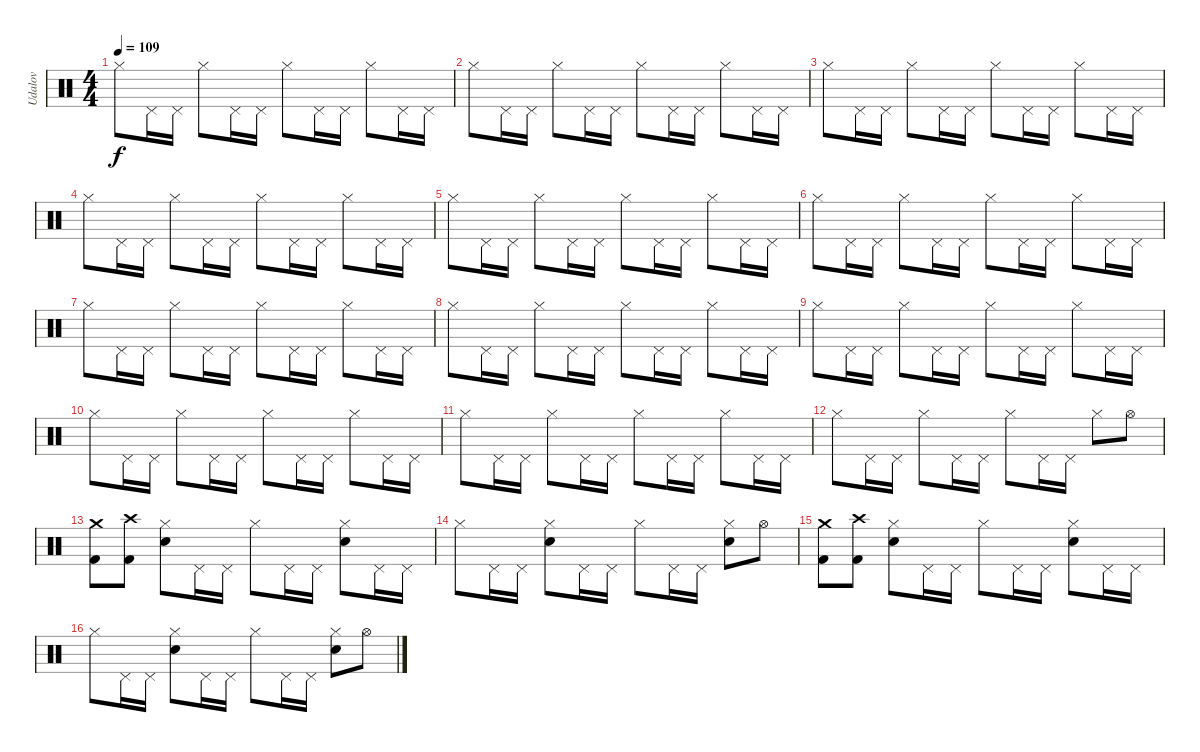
\track ("Udalov" "Udalov") {instrument percussion}
\staff {score}
\articulation defaults
\ts (4 4)
\tempo 109
\clef neutral
\ks c "Hi-Hat (closed)".8{dy f} "Pedal Hi-Hat (hit)".16 "Pedal Hi-Hat (hit)".16 "Hi-Hat (closed)".8 "Pedal Hi-Hat (hit)".16 "Pedal Hi-Hat (hit)".16 "Hi-Hat (closed)".8 "Pedal Hi-Hat (hit)".16 "Pedal Hi-Hat (hit)".16 "Hi-Hat (closed)".8 "Pedal Hi-Hat (hit)".16 "Pedal Hi-Hat (hit)".16
|
"Hi-Hat (closed)".8 "Pedal Hi-Hat (hit)".16 "Pedal Hi-Hat (hit)".16 "Hi-Hat (closed)".8 "Pedal Hi-Hat (hit)".16 "Pedal Hi-Hat (hit)".16 "Hi-Hat (closed)".8 "Pedal Hi-Hat (hit)".16 "Pedal Hi-Hat (hit)".16 "Hi-Hat (closed)".8 "Pedal Hi-Hat (hit)".16 "Pedal Hi-Hat (hit)".16 |
"Hi-Hat (closed)".8 "Pedal Hi-Hat (hit)".16 "Pedal Hi-Hat (hit)".16 "Hi-Hat (closed)".8 "Pedal Hi-Hat (hit)".16 "Pedal Hi-Hat (hit)".16 "Hi-Hat (closed)".8 "Pedal Hi-Hat (hit)".16 "Pedal Hi-Hat (hit)".16 "Hi-Hat (closed)".8 "Pedal Hi-Hat (hit)".16 "Pedal Hi-Hat (hit)".16 |
"Hi-Hat (closed)".8 "Pedal Hi-Hat (hit)".16 "Pedal Hi-Hat (hit)".16 "Hi-Hat (closed)".8 "Pedal Hi-Hat (hit)".16 "Pedal Hi-Hat (hit)".16 "Hi-Hat (closed)".8 "Pedal Hi-Hat (hit)".16 "Pedal Hi-Hat (hit)".16 "Hi-Hat (closed)".8 "Pedal Hi-Hat (hit)".16 "Pedal Hi-Hat (hit)".16 |
"Hi-Hat (closed)".8 "Pedal Hi-Hat (hit)".16 "Pedal Hi-Hat (hit)".16 "Hi-Hat (closed)".8 "Pedal Hi-Hat (hit)".16 "Pedal Hi-Hat (hit)".16 "Hi-Hat (closed)".8 "Pedal Hi-Hat (hit)".16 "Pedal Hi-Hat (hit)".16 "Hi-Hat (closed)".8 "Pedal Hi-Hat (hit)".16 "Pedal Hi-Hat (hit)".16 |
"Hi-Hat (closed)".8 "Pedal Hi-Hat (hit)".16 "Pedal Hi-Hat (hit)".16 "Hi-Hat (closed)".8 "Pedal Hi-Hat (hit)".16 "Pedal Hi-Hat (hit)".16 "Hi-Hat (closed)".8 "Pedal Hi-Hat (hit)".16 "Pedal Hi-Hat (hit)".16 "Hi-Hat (closed)".8 "Pedal Hi-Hat (hit)".16 "Pedal Hi-Hat (hit)".16 |
"Hi-Hat (closed)".8 "Pedal Hi-Hat (hit)".16 "Pedal Hi-Hat (hit)".16 "Hi-Hat (closed)".8 "Pedal Hi-Hat (hit)".16 "Pedal Hi-Hat (hit)".16 "Hi-Hat (closed)".8 "Pedal Hi-Hat (hit)".16 "Pedal Hi-Hat (hit)".16 "Hi-Hat (closed)".8 "Pedal Hi-Hat (hit)".16 "Pedal Hi-Hat (hit)".16 |
"Hi-Hat (closed)".8 "Pedal Hi-Hat (hit)".16 "Pedal Hi-Hat (hit)".16 "Hi-Hat (closed)".8 "Pedal Hi-Hat (hit)".16 "Pedal Hi-Hat (hit)".16 "Hi-Hat (closed)".8 "Pedal Hi-Hat (hit)".16 "Pedal Hi-Hat (hit)".16 "Hi-Hat (closed)".8 "Pedal Hi-Hat (hit)".16 "Pedal Hi-Hat (hit)".16 |
"Hi-Hat (closed)".8 "Pedal Hi-Hat (hit)".16 "Pedal Hi-Hat (hit)".16 "Hi-Hat (closed)".8 "Pedal Hi-Hat (hit)".16 "Pedal Hi-Hat (hit)".16 "Hi-Hat (closed)".8 "Pedal Hi-Hat (hit)".16 "Pedal Hi-Hat (hit)".16 "Hi-Hat (closed)".8 "Pedal Hi-Hat (hit)".16 "Pedal Hi-Hat (hit)".16 |
"Hi-Hat (closed)".8 "Pedal Hi-Hat (hit)".16 "Pedal Hi-Hat (hit)".16 "Hi-Hat (closed)".8 "Pedal Hi-Hat (hit)".16 "Pedal Hi-Hat (hit)".16 "Hi-Hat (closed)".8 "Pedal Hi-Hat (hit)".16 "Pedal Hi-Hat (hit)".16 "Hi-Hat (closed)".8 "Pedal Hi-Hat (hit)".16 "Pedal Hi-Hat (hit)".16 |
"Hi-Hat (closed)".8 "Pedal Hi-Hat (hit)".16 "Pedal Hi-Hat (hit)".16 "Hi-Hat (closed)".8 "Pedal Hi-Hat (hit)".16 "Pedal Hi-Hat (hit)".16 "Hi-Hat (closed)".8 "Pedal Hi-Hat (hit)".16 "Pedal Hi-Hat (hit)".16 "Hi-Hat (closed)".8 "Pedal Hi-Hat (hit)".16 "Pedal Hi-Hat (hit)".16 |
"Hi-Hat (closed)".8 "Pedal Hi-Hat (hit)".16 "Pedal Hi-Hat (hit)".16 "Hi-Hat (closed)".8 "Pedal Hi-Hat (hit)".16 "Pedal Hi-Hat (hit)".16 "Hi-Hat (closed)".8 "Pedal Hi-Hat (hit)".16 "Pedal Hi-Hat (hit)".16 "Hi-Hat (closed)".8 "Hi-Hat (open)".8 |
("Crash medium (hit)" "Kick (hit) 2").8 ("Crash high (hit)" "Kick (hit) 2").8 ("Hi-Hat (closed)" "Snare (hit) 2").8 "Pedal Hi-Hat (hit)".16 "Pedal Hi-Hat (hit)".16 "Hi-Hat (closed)".8 "Pedal Hi-Hat (hit)".16 "Pedal Hi-Hat (hit)".16 ("Snare (hit) 2" "Hi-Hat (closed)").8 "Pedal Hi-Hat (hit)".16 "Pedal Hi-Hat (hit)".16 |
"Hi-Hat (closed)".8 "Pedal Hi-Hat (hit)".16 "Pedal Hi-Hat (hit)".16 ("Snare (hit) 2" "Hi-Hat (closed)").8 "Pedal Hi-Hat (hit)".16 "Pedal Hi-Hat (hit)".16 "Hi-Hat (closed)".8 "Pedal Hi-Hat (hit)".16 "Pedal Hi-Hat (hit)".16 ("Snare (hit) 2" "Hi-Hat (closed)").8 "Hi-Hat (open)".8 |
("Crash medium (hit)" "Kick (hit) 2").8 ("Crash high (hit)" "Kick (hit) 2").8 ("Hi-Hat (closed)" "Snare (hit) 2").8 "Pedal Hi-Hat (hit)".16 "Pedal Hi-Hat (hit)".16 "Hi-Hat (closed)".8 "Pedal Hi-Hat (hit)".16 "Pedal Hi-Hat (hit)".16 ("Snare (hit) 2" "Hi-Hat (closed)").8 "Pedal Hi-Hat (hit)".16 "Pedal Hi-Hat (hit)".16 |
"Hi-Hat (closed)".8 "Pedal Hi-Hat (hit)".16 "Pedal Hi-Hat (hit)".16 ("Snare (hit) 2" "Hi-Hat (closed)").8 "Pedal Hi-Hat (hit)".16 "Pedal Hi-Hat (hit)".16 "Hi-Hat (closed)".8 "Pedal Hi-Hat (hit)".16 "Pedal Hi-Hat (hit)".16 ("Snare (hit) 2" "Hi-Hat (closed)").8 "Hi-Hat (open)".8
